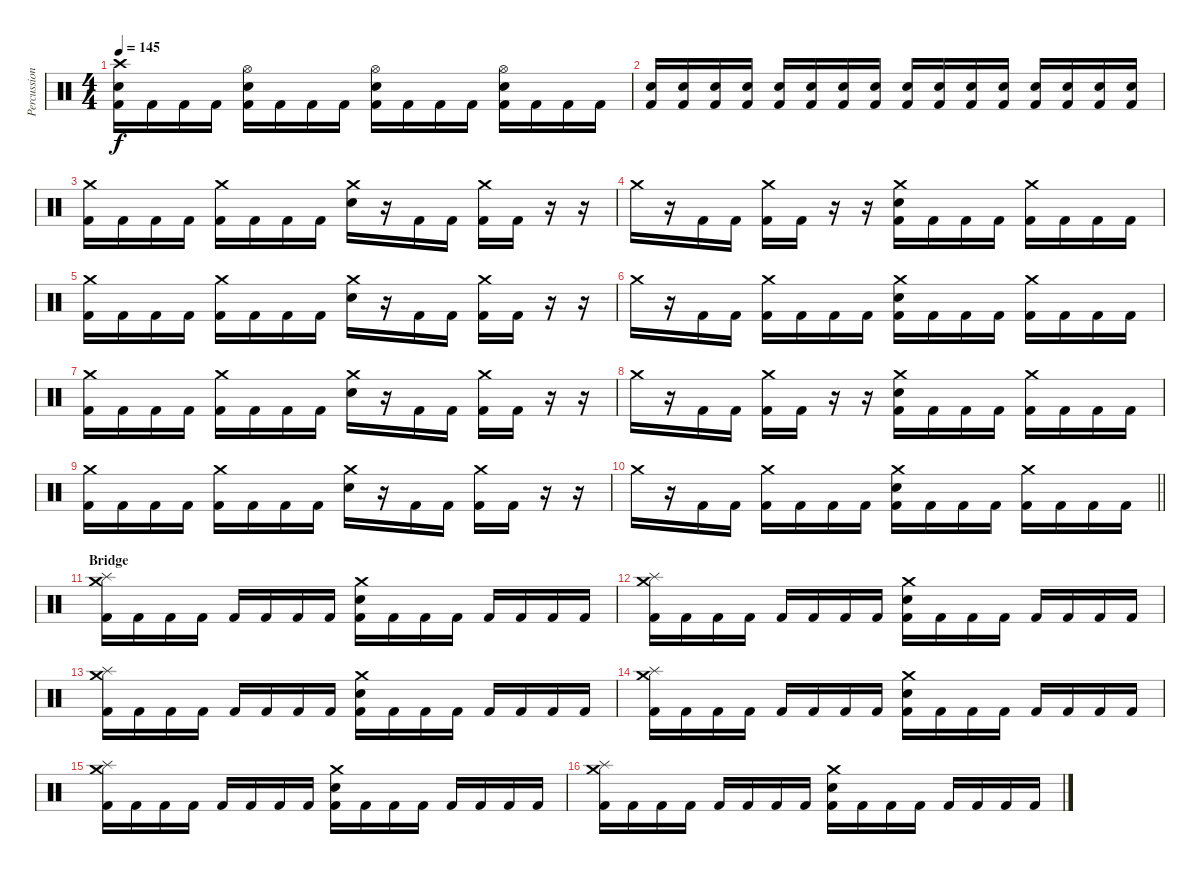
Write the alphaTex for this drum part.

\track ("Percussion" "Percussion") {instrument percussion}
\staff {score}
\articulation defaults
\ts (4 4)
\tempo 145
\clef neutral
\ks aminor
("Crash high (hit)" "Electric Snare (hit)" "Kick (hit) 2").16{dy f} "Kick (hit) 2".16 "Kick (hit) 2".16 "Kick (hit) 2".16 ("Hi-Hat (open)" "Electric Snare (hit)" "Kick (hit) 2").16 "Kick (hit) 2".16 "Kick (hit) 2".16 "Kick (hit) 2".16 ("Hi-Hat (open)" "Electric Snare (hit)" "Kick (hit) 2").16 "Kick (hit) 2".16 "Kick (hit) 2".16 "Kick (hit) 2".16 ("Hi-Hat (open)" "Electric Snare (hit)" "Kick (hit) 2").16 "Kick (hit) 2".16 "Kick (hit) 2".16 "Kick (hit) 2".16 |
("Electric Snare (hit)" "Kick (hit) 2").16 ("Electric Snare (hit)" "Kick (hit) 2").16 ("Electric Snare (hit)" "Kick (hit) 2").16 ("Electric Snare (hit)" "Kick (hit) 2").16 ("Electric Snare (hit)" "Kick (hit) 2").16 ("Electric Snare (hit)" "Kick (hit) 2").16 ("Electric Snare (hit)" "Kick (hit) 2").16 ("Electric Snare (hit)" "Kick (hit) 2").16 ("Electric Snare (hit)" "Kick (hit) 2").16 ("Electric Snare (hit)" "Kick (hit) 2").16 ("Electric Snare (hit)" "Kick (hit) 2").16 ("Electric Snare (hit)" "Kick (hit) 2").16 ("Electric Snare (hit)" "Kick (hit) 2").16 ("Electric Snare (hit)" "Kick (hit) 2").16 ("Electric Snare (hit)" "Kick (hit) 2").16 ("Electric Snare (hit)" "Kick (hit) 2").16 |
("Crash medium (hit)" "Kick (hit) 2").16 "Kick (hit) 2".16 "Kick (hit) 2".16 "Kick (hit) 2".16 ("Crash medium (hit)" "Kick (hit) 2").16 "Kick (hit) 2".16 "Kick (hit) 2".16 "Kick (hit) 2".16 ("Crash medium (hit)" "Electric Snare (hit)").16 r.16 "Kick (hit) 2".16 "Kick (hit) 2".16 ("Crash medium (hit)" "Kick (hit) 2").16 "Kick (hit) 2".16 r.16 r.16 |
"Crash medium (hit)".16 r.16 "Kick (hit) 2".16 "Kick (hit) 2".16 ("Crash medium (hit)" "Kick (hit) 2").16 "Kick (hit) 2".16 r.16 r.16 ("Crash medium (hit)" "Electric Snare (hit)" "Kick (hit) 2").16 "Kick (hit) 2".16 "Kick (hit) 2".16 "Kick (hit) 2".16 ("Crash medium (hit)" "Kick (hit) 2").16 "Kick (hit) 2".16 "Kick (hit) 2".16 "Kick (hit) 2".16 |
("Crash medium (hit)" "Kick (hit) 2").16 "Kick (hit) 2".16 "Kick (hit) 2".16 "Kick (hit) 2".16 ("Crash medium (hit)" "Kick (hit) 2").16 "Kick (hit) 2".16 "Kick (hit) 2".16 "Kick (hit) 2".16 ("Crash medium (hit)" "Electric Snare (hit)").16 r.16 "Kick (hit) 2".16 "Kick (hit) 2".16 ("Crash medium (hit)" "Kick (hit) 2").16 "Kick (hit) 2".16 r.16 r.16 |
"Crash medium (hit)".16 r.16 "Kick (hit) 2".16 "Kick (hit) 2".16 ("Crash medium (hit)" "Kick (hit) 2").16 "Kick (hit) 2".16 "Kick (hit) 2".16 "Kick (hit) 2".16 ("Crash medium (hit)" "Electric Snare (hit)" "Kick (hit) 2").16 "Kick (hit) 2".16 "Kick (hit) 2".16 "Kick (hit) 2".16 ("Crash medium (hit)" "Kick (hit) 2").16 "Kick (hit) 2".16 "Kick (hit) 2".16 "Kick (hit) 2".16 |
("Crash medium (hit)" "Kick (hit) 2").16 "Kick (hit) 2".16 "Kick (hit) 2".16 "Kick (hit) 2".16 ("Crash medium (hit)" "Kick (hit) 2").16 "Kick (hit) 2".16 "Kick (hit) 2".16 "Kick (hit) 2".16 ("Crash medium (hit)" "Electric Snare (hit)").16 r.16 "Kick (hit) 2".16 "Kick (hit) 2".16 ("Crash medium (hit)" "Kick (hit) 2").16 "Kick (hit) 2".16 r.16 r.16 |
"Crash medium (hit)".16 r.16 "Kick (hit) 2".16 "Kick (hit) 2".16 ("Crash medium (hit)" "Kick (hit) 2").16 "Kick (hit) 2".16 r.16 r.16 ("Crash medium (hit)" "Electric Snare (hit)" "Kick (hit) 2").16 "Kick (hit) 2".16 "Kick (hit) 2".16 "Kick (hit) 2".16 ("Crash medium (hit)" "Kick (hit) 2").16 "Kick (hit) 2".16 "Kick (hit) 2".16 "Kick (hit) 2".16 |
("Crash medium (hit)" "Kick (hit) 2").16 "Kick (hit) 2".16 "Kick (hit) 2".16 "Kick (hit) 2".16 ("Crash medium (hit)" "Kick (hit) 2").16 "Kick (hit) 2".16 "Kick (hit) 2".16 "Kick (hit) 2".16 ("Crash medium (hit)" "Electric Snare (hit)").16 r.16 "Kick (hit) 2".16 "Kick (hit) 2".16 ("Crash medium (hit)" "Kick (hit) 2").16 "Kick (hit) 2".16 r.16 r.16 |
\barLineRight lightlight "Crash medium (hit)".16
r.16 "Kick (hit) 2".16 "Kick (hit) 2".16 ("Crash medium (hit)" "Kick (hit) 2").16 "Kick (hit) 2".16 "Kick (hit) 2".16 "Kick (hit) 2".16 ("Crash medium (hit)" "Electric Snare (hit)" "Kick (hit) 2").16 "Kick (hit) 2".16 "Kick (hit) 2".16 "Kick (hit) 2".16 ("Crash medium (hit)" "Kick (hit) 2").16 "Kick (hit) 2".16 "Kick (hit) 2".16 "Kick (hit) 2".16 |
\section ("" "Bridge")
("Crash medium (hit)" "Splash (hit)" "Kick (hit) 2").16 "Kick (hit) 2".16 "Kick (hit) 2".16 "Kick (hit) 2".16 "Kick (hit) 2".16 "Kick (hit) 2".16 "Kick (hit) 2".16 "Kick (hit) 2".16 ("Crash medium (hit)" "Electric Snare (hit)" "Kick (hit) 2").16 "Kick (hit) 2".16 "Kick (hit) 2".16 "Kick (hit) 2".16 "Kick (hit) 2".16 "Kick (hit) 2".16 "Kick (hit) 2".16 "Kick (hit) 2".16 |
("Crash medium (hit)" "Splash (hit)" "Kick (hit) 2").16 "Kick (hit) 2".16 "Kick (hit) 2".16 "Kick (hit) 2".16 "Kick (hit) 2".16 "Kick (hit) 2".16 "Kick (hit) 2".16 "Kick (hit) 2".16 ("Crash medium (hit)" "Electric Snare (hit)" "Kick (hit) 2").16 "Kick (hit) 2".16 "Kick (hit) 2".16 "Kick (hit) 2".16 "Kick (hit) 2".16 "Kick (hit) 2".16 "Kick (hit) 2".16 "Kick (hit) 2".16 |
("Crash medium (hit)" "Splash (hit)" "Kick (hit) 2").16 "Kick (hit) 2".16 "Kick (hit) 2".16 "Kick (hit) 2".16 "Kick (hit) 2".16 "Kick (hit) 2".16 "Kick (hit) 2".16 "Kick (hit) 2".16 ("Crash medium (hit)" "Electric Snare (hit)" "Kick (hit) 2").16 "Kick (hit) 2".16 "Kick (hit) 2".16 "Kick (hit) 2".16 "Kick (hit) 2".16 "Kick (hit) 2".16 "Kick (hit) 2".16 "Kick (hit) 2".16 |
("Crash medium (hit)" "Splash (hit)" "Kick (hit) 2").16 "Kick (hit) 2".16 "Kick (hit) 2".16 "Kick (hit) 2".16 "Kick (hit) 2".16 "Kick (hit) 2".16 "Kick (hit) 2".16 "Kick (hit) 2".16 ("Crash medium (hit)" "Electric Snare (hit)" "Kick (hit) 2").16 "Kick (hit) 2".16 "Kick (hit) 2".16 "Kick (hit) 2".16 "Kick (hit) 2".16 "Kick (hit) 2".16 "Kick (hit) 2".16 "Kick (hit) 2".16 |
("Crash medium (hit)" "Splash (hit)" "Kick (hit) 2").16 "Kick (hit) 2".16 "Kick (hit) 2".16 "Kick (hit) 2".16 "Kick (hit) 2".16 "Kick (hit) 2".16 "Kick (hit) 2".16 "Kick (hit) 2".16 ("Crash medium (hit)" "Electric Snare (hit)" "Kick (hit) 2").16 "Kick (hit) 2".16 "Kick (hit) 2".16 "Kick (hit) 2".16 "Kick (hit) 2".16 "Kick (hit) 2".16 "Kick (hit) 2".16 "Kick (hit) 2".16 |
("Crash medium (hit)" "Splash (hit)" "Kick (hit) 2").16 "Kick (hit) 2".16 "Kick (hit) 2".16 "Kick (hit) 2".16 "Kick (hit) 2".16 "Kick (hit) 2".16 "Kick (hit) 2".16 "Kick (hit) 2".16 ("Crash medium (hit)" "Electric Snare (hit)" "Kick (hit) 2").16 "Kick (hit) 2".16 "Kick (hit) 2".16 "Kick (hit) 2".16 "Kick (hit) 2".16 "Kick (hit) 2".16 "Kick (hit) 2".16 "Kick (hit) 2".16
